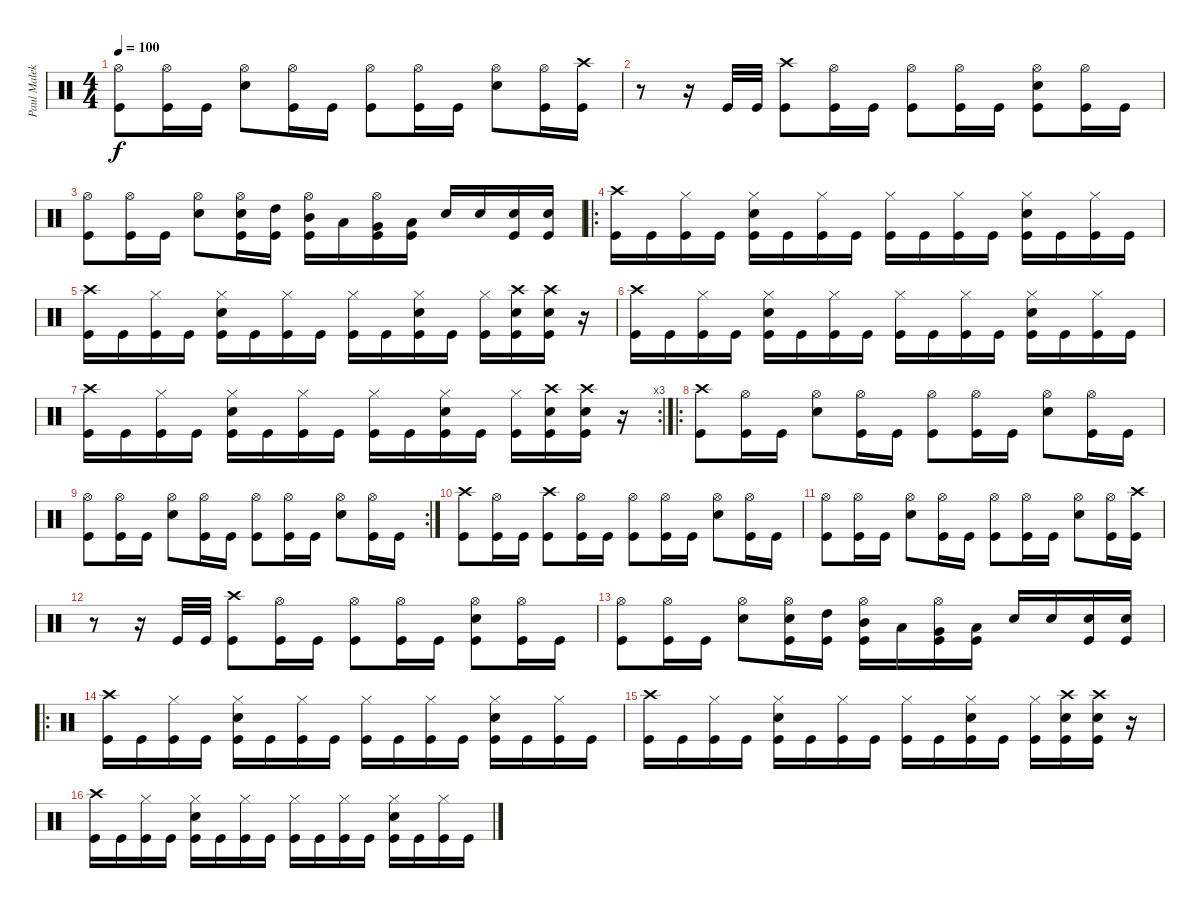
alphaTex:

\track ("Paul Malek" "Paul Malek") {instrument percussion}
\staff {score}
\articulation defaults
\ts (4 4)
\tempo 100
\clef neutral
\ks c
("Hi-Hat (open)" "Kick (hit)").8{dy f} ("Hi-Hat (open)" "Kick (hit)").16 "Kick (hit)".16 ("Hi-Hat (open)" "Snare (hit) 2").8 ("Hi-Hat (open)" "Kick (hit)").16 "Kick (hit)".16 ("Hi-Hat (open)" "Kick (hit)").8 ("Hi-Hat (open)" "Kick (hit)").16 "Kick (hit)".16 ("Hi-Hat (open)" "Snare (hit) 2").8 ("Hi-Hat (open)" "Kick (hit)").16 ("Crash high (hit)" "Kick (hit)").16 |
r.8 r.16 "Kick (hit)".32 "Kick (hit)".32 ("Crash high (hit)" "Kick (hit)").8 ("Hi-Hat (open)" "Kick (hit)").16 "Kick (hit)".16 ("Hi-Hat (open)" "Kick (hit)").8 ("Hi-Hat (open)" "Kick (hit)").16 "Kick (hit)".16 ("Hi-Hat (open)" "Snare (hit) 2" "Kick (hit)").8 ("Hi-Hat (open)" "Kick (hit)").16 "Kick (hit)".16 |
("Hi-Hat (open)" "Kick (hit)").8 ("Hi-Hat (open)" "Kick (hit)").16 "Kick (hit)".16 ("Hi-Hat (open)" "Snare (hit) 2").8 ("Hi-Hat (open)" "Electric Snare (hit)" "Kick (hit)").16 ("High Tom (hit)" "Kick (hit)").16 ("Hi-Hat (open)" "Mid Tom (hit)" "Kick (hit)").16 "Low Tom (hit)".16 ("Hi-Hat (open)" "Very Low Tom (hit)" "Kick (hit)").16 ("Low Floor Tom (hit)" "Kick (hit)").16 "Snare (hit) 2".16 "Snare (hit) 2".16 ("Snare (hit) 2" "Kick (hit)").16 ("Snare (hit) 2" "Kick (hit)").16 |
\ro
("Crash high (hit)" "Kick (hit)").16 "Kick (hit)".16 ("Hi-Hat (closed)" "Kick (hit)").16 "Kick (hit)".16 ("Hi-Hat (closed)" "Snare (hit) 2" "Kick (hit)").16 "Kick (hit)".16 ("Hi-Hat (closed)" "Kick (hit)").16 "Kick (hit)".16 ("Hi-Hat (closed)" "Kick (hit)").16 "Kick (hit)".16 ("Hi-Hat (closed)" "Kick (hit)").16 "Kick (hit)".16 ("Hi-Hat (closed)" "Snare (hit) 2" "Kick (hit)").16 "Kick (hit)".16 ("Hi-Hat (closed)" "Kick (hit)").16 "Kick (hit)".16 |
("Crash high (hit)" "Kick (hit)").16 "Kick (hit)".16 ("Hi-Hat (closed)" "Kick (hit)").16 "Kick (hit)".16 ("Hi-Hat (closed)" "Snare (hit) 2" "Kick (hit)").16 "Kick (hit)".16 ("Hi-Hat (closed)" "Kick (hit)").16 "Kick (hit)".16 ("Hi-Hat (closed)" "Kick (hit)").16 "Kick (hit)".16 ("Hi-Hat (closed)" "Snare (hit) 2" "Kick (hit)").16 "Kick (hit)".16 ("Hi-Hat (closed)" "Kick (hit)").16 ("Snare (hit) 2" "Crash high (hit)" "Kick (hit)").16 ("Snare (hit) 2" "Crash high (hit)" "Kick (hit)").16 r.16 |
("Crash high (hit)" "Kick (hit)").16 "Kick (hit)".16 ("Hi-Hat (closed)" "Kick (hit)").16 "Kick (hit)".16 ("Hi-Hat (closed)" "Snare (hit) 2" "Kick (hit)").16 "Kick (hit)".16 ("Hi-Hat (closed)" "Kick (hit)").16 "Kick (hit)".16 ("Hi-Hat (closed)" "Kick (hit)").16 "Kick (hit)".16 ("Hi-Hat (closed)" "Kick (hit)").16 "Kick (hit)".16 ("Hi-Hat (closed)" "Snare (hit) 2" "Kick (hit)").16 "Kick (hit)".16 ("Hi-Hat (closed)" "Kick (hit)").16 "Kick (hit)".16 |
\rc 3
("Crash high (hit)" "Kick (hit)").16 "Kick (hit)".16 ("Hi-Hat (closed)" "Kick (hit)").16 "Kick (hit)".16 ("Hi-Hat (closed)" "Snare (hit) 2" "Kick (hit)").16 "Kick (hit)".16 ("Hi-Hat (closed)" "Kick (hit)").16 "Kick (hit)".16 ("Hi-Hat (closed)" "Kick (hit)").16 "Kick (hit)".16 ("Hi-Hat (closed)" "Snare (hit) 2" "Kick (hit)").16 "Kick (hit)".16 ("Hi-Hat (closed)" "Kick (hit)").16 ("Snare (hit) 2" "Crash high (hit)" "Kick (hit)").16 ("Snare (hit) 2" "Crash high (hit)" "Kick (hit)").16 r.16 |
\ro
("Crash high (hit)" "Kick (hit)").8 ("Hi-Hat (open)" "Kick (hit)").16 "Kick (hit)".16 ("Hi-Hat (open)" "Snare (hit) 2").8 ("Hi-Hat (open)" "Kick (hit)").16 "Kick (hit)".16 ("Hi-Hat (open)" "Kick (hit)").8 ("Hi-Hat (open)" "Kick (hit)").16 "Kick (hit)".16 ("Hi-Hat (open)" "Snare (hit) 2").8 ("Hi-Hat (open)" "Kick (hit)").16 "Kick (hit)".16 |
\rc 2
("Hi-Hat (open)" "Kick (hit)").8 ("Hi-Hat (open)" "Kick (hit)").16 "Kick (hit)".16 ("Hi-Hat (open)" "Snare (hit) 2").8 ("Hi-Hat (open)" "Kick (hit)").16 "Kick (hit)".16 ("Hi-Hat (open)" "Kick (hit)").8 ("Hi-Hat (open)" "Kick (hit)").16 "Kick (hit)".16 ("Hi-Hat (open)" "Snare (hit) 2").8 ("Hi-Hat (open)" "Kick (hit)").16 "Kick (hit)".16 |
("Crash high (hit)" "Kick (hit)").8 ("Hi-Hat (open)" "Kick (hit)").16 "Kick (hit)".16 ("Crash high (hit)" "Kick (hit)").8 ("Hi-Hat (open)" "Kick (hit)").16 "Kick (hit)".16 ("Hi-Hat (open)" "Kick (hit)").8 ("Hi-Hat (open)" "Kick (hit)").16 "Kick (hit)".16 ("Hi-Hat (open)" "Snare (hit) 2").8 ("Hi-Hat (open)" "Kick (hit)").16 "Kick (hit)".16 |
("Hi-Hat (open)" "Kick (hit)").8 ("Hi-Hat (open)" "Kick (hit)").16 "Kick (hit)".16 ("Hi-Hat (open)" "Snare (hit) 2").8 ("Hi-Hat (open)" "Kick (hit)").16 "Kick (hit)".16 ("Hi-Hat (open)" "Kick (hit)").8 ("Hi-Hat (open)" "Kick (hit)").16 "Kick (hit)".16 ("Hi-Hat (open)" "Snare (hit) 2").8 ("Hi-Hat (open)" "Kick (hit)").16 ("Crash high (hit)" "Kick (hit)").16 |
r.8 r.16 "Kick (hit)".32 "Kick (hit)".32 ("Crash high (hit)" "Kick (hit)").8 ("Hi-Hat (open)" "Kick (hit)").16 "Kick (hit)".16 ("Hi-Hat (open)" "Kick (hit)").8 ("Hi-Hat (open)" "Kick (hit)").16 "Kick (hit)".16 ("Hi-Hat (open)" "Snare (hit) 2" "Kick (hit)").8 ("Hi-Hat (open)" "Kick (hit)").16 "Kick (hit)".16 |
("Hi-Hat (open)" "Kick (hit)").8 ("Hi-Hat (open)" "Kick (hit)").16 "Kick (hit)".16 ("Hi-Hat (open)" "Snare (hit) 2").8 ("Hi-Hat (open)" "Electric Snare (hit)" "Kick (hit)").16 ("High Tom (hit)" "Kick (hit)").16 ("Hi-Hat (open)" "Mid Tom (hit)" "Kick (hit)").16 "Low Tom (hit)".16 ("Hi-Hat (open)" "Very Low Tom (hit)" "Kick (hit)").16 ("Low Floor Tom (hit)" "Kick (hit)").16 "Snare (hit) 2".16 "Snare (hit) 2".16 ("Snare (hit) 2" "Kick (hit)").16 ("Snare (hit) 2" "Kick (hit)").16 |
\ro
("Crash high (hit)" "Kick (hit)").16 "Kick (hit)".16 ("Hi-Hat (closed)" "Kick (hit)").16 "Kick (hit)".16 ("Hi-Hat (closed)" "Snare (hit) 2" "Kick (hit)").16 "Kick (hit)".16 ("Hi-Hat (closed)" "Kick (hit)").16 "Kick (hit)".16 ("Hi-Hat (closed)" "Kick (hit)").16 "Kick (hit)".16 ("Hi-Hat (closed)" "Kick (hit)").16 "Kick (hit)".16 ("Hi-Hat (closed)" "Snare (hit) 2" "Kick (hit)").16 "Kick (hit)".16 ("Hi-Hat (closed)" "Kick (hit)").16 "Kick (hit)".16 |
("Crash high (hit)" "Kick (hit)").16 "Kick (hit)".16 ("Hi-Hat (closed)" "Kick (hit)").16 "Kick (hit)".16 ("Hi-Hat (closed)" "Snare (hit) 2" "Kick (hit)").16 "Kick (hit)".16 ("Hi-Hat (closed)" "Kick (hit)").16 "Kick (hit)".16 ("Hi-Hat (closed)" "Kick (hit)").16 "Kick (hit)".16 ("Hi-Hat (closed)" "Snare (hit) 2" "Kick (hit)").16 "Kick (hit)".16 ("Hi-Hat (closed)" "Kick (hit)").16 ("Snare (hit) 2" "Crash high (hit)" "Kick (hit)").16 ("Snare (hit) 2" "Crash high (hit)" "Kick (hit)").16 r.16 |
("Crash high (hit)" "Kick (hit)").16 "Kick (hit)".16 ("Hi-Hat (closed)" "Kick (hit)").16 "Kick (hit)".16 ("Hi-Hat (closed)" "Snare (hit) 2" "Kick (hit)").16 "Kick (hit)".16 ("Hi-Hat (closed)" "Kick (hit)").16 "Kick (hit)".16 ("Hi-Hat (closed)" "Kick (hit)").16 "Kick (hit)".16 ("Hi-Hat (closed)" "Kick (hit)").16 "Kick (hit)".16 ("Hi-Hat (closed)" "Snare (hit) 2" "Kick (hit)").16 "Kick (hit)".16 ("Hi-Hat (closed)" "Kick (hit)").16 "Kick (hit)".16
